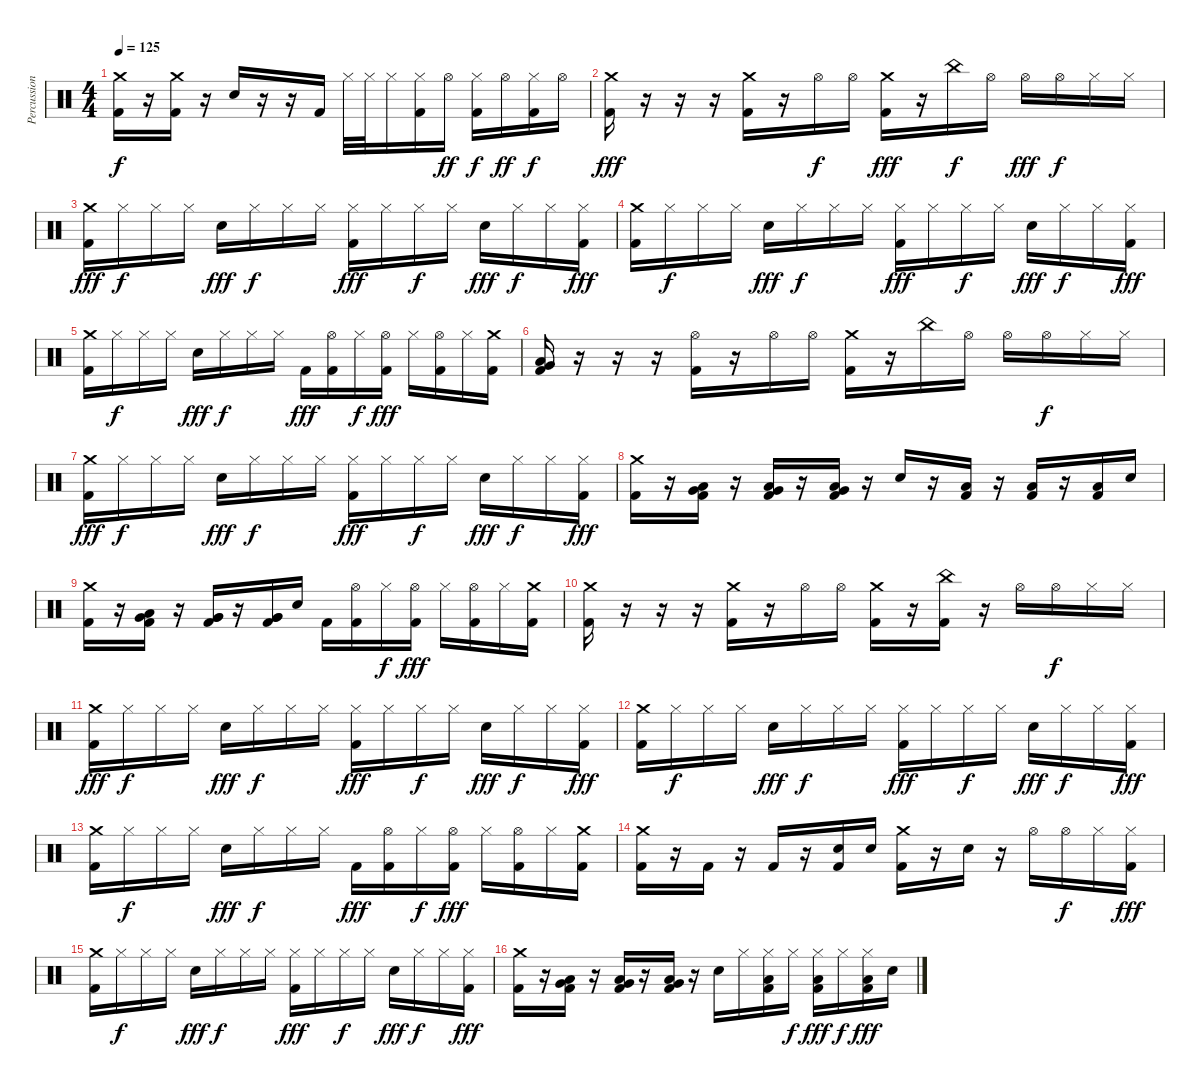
\track ("Percussion" "Percussion") {instrument percussion}
\staff {score}
\articulation defaults
\ts (4 4)
\tempo 125
\clef neutral
\ks c
("Crash medium (hit)" "Kick (hit) 2").16{dy f} r.16 ("Crash medium (hit)" "Kick (hit) 2").16 r.16 "Electric Snare (hit)".16 r.16 r.16 "Kick (hit) 2".16 "Hi-Hat (closed)".32 "Hi-Hat (closed)".32 "Hi-Hat (closed)".16 ("Hi-Hat (closed)" "Kick (hit) 2").16 "Hi-Hat (open)".16{dy ff} ("Hi-Hat (closed)" "Kick (hit) 2").16{dy f} "Hi-Hat (open)".16{dy ff} ("Hi-Hat (closed)" "Kick (hit) 2").16{dy f} "Hi-Hat (open)".16 |
("Crash medium (hit)" "Kick (hit) 2").16{dy fff} r.16 r.16 r.16 ("Crash medium (hit)" "Kick (hit) 2").16 r.16 "Hi-Hat (open)".16{dy f} "Hi-Hat (open)".16 ("Crash medium (hit)" "Kick (hit) 2").16{dy fff} r.16 "China (hit)".16{dy f} "Hi-Hat (open)".16 "Hi-Hat (open)".16{dy fff} "Hi-Hat (open)".16{dy f} "Hi-Hat (closed)".16 "Hi-Hat (closed)".16 |
("Crash medium (hit)" "Kick (hit) 2").16{dy fff} "Hi-Hat (closed)".16{dy f} "Hi-Hat (closed)".16 "Hi-Hat (closed)".16 "Electric Snare (hit)".16{dy fff} "Hi-Hat (closed)".16{dy f} "Hi-Hat (closed)".16 "Hi-Hat (closed)".16 ("Hi-Hat (closed)" "Kick (hit) 2").16{dy fff} "Hi-Hat (closed)".16 "Hi-Hat (closed)".16{dy f} "Hi-Hat (closed)".16 "Electric Snare (hit)".16{dy fff} "Hi-Hat (closed)".16{dy f} "Hi-Hat (closed)".16 ("Hi-Hat (closed)" "Kick (hit) 2").16{dy fff} |
("Crash medium (hit)" "Kick (hit) 2").16 "Hi-Hat (closed)".16{dy f} "Hi-Hat (closed)".16 "Hi-Hat (closed)".16 "Electric Snare (hit)".16{dy fff} "Hi-Hat (closed)".16{dy f} "Hi-Hat (closed)".16 "Hi-Hat (closed)".16 ("Hi-Hat (closed)" "Kick (hit) 2").16{dy fff} "Hi-Hat (closed)".16 "Hi-Hat (closed)".16{dy f} "Hi-Hat (closed)".16 "Electric Snare (hit)".16{dy fff} "Hi-Hat (closed)".16{dy f} "Hi-Hat (closed)".16 ("Hi-Hat (closed)" "Kick (hit) 2").16{dy fff} |
("Crash medium (hit)" "Kick (hit) 2").16 "Hi-Hat (closed)".16{dy f} "Hi-Hat (closed)".16 "Hi-Hat (closed)".16 "Electric Snare (hit)".16{dy fff} "Hi-Hat (closed)".16{dy f} "Hi-Hat (closed)".16 "Hi-Hat (closed)".16 "Kick (hit) 2".16{dy fff} ("Hi-Hat (open)" "Kick (hit) 2").16 "Hi-Hat (closed)".16{dy f} ("Hi-Hat (open)" "Kick (hit) 2").16{dy fff} "Hi-Hat (closed)".16 ("Hi-Hat (open)" "Kick (hit) 2").16 "Hi-Hat (closed)".16 ("Crash medium (hit)" "Kick (hit) 2").16 |
("Very Low Tom (hit)" "Low Floor Tom (hit)" "Kick (hit) 2").16 r.16 r.16 r.16 ("Hi-Hat (open)" "Kick (hit) 2").16 r.16 "Hi-Hat (open)".16 "Hi-Hat (open)".16 ("Crash medium (hit)" "Kick (hit) 2").16 r.16 "China (hit)".16 "Hi-Hat (open)".16 "Hi-Hat (open)".16 "Hi-Hat (open)".16{dy f} "Hi-Hat (closed)".16 "Hi-Hat (closed)".16 |
("Crash medium (hit)" "Kick (hit) 2").16{dy fff} "Hi-Hat (closed)".16{dy f} "Hi-Hat (closed)".16 "Hi-Hat (closed)".16 "Electric Snare (hit)".16{dy fff} "Hi-Hat (closed)".16{dy f} "Hi-Hat (closed)".16 "Hi-Hat (closed)".16 ("Hi-Hat (closed)" "Kick (hit) 2").16{dy fff} "Hi-Hat (closed)".16 "Hi-Hat (closed)".16{dy f} "Hi-Hat (closed)".16 "Electric Snare (hit)".16{dy fff} "Hi-Hat (closed)".16{dy f} "Hi-Hat (closed)".16 ("Hi-Hat (closed)" "Kick (hit) 2").16{dy fff} |
("Crash medium (hit)" "Kick (hit) 2").16 r.16 ("Very Low Tom (hit)" "Low Floor Tom (hit)" "Kick (hit) 2").16 r.16 ("Very Low Tom (hit)" "Low Floor Tom (hit)" "Kick (hit) 2").16 r.16 ("Very Low Tom (hit)" "Low Floor Tom (hit)" "Kick (hit) 2").16 r.16 "Electric Snare (hit)".16 r.16 ("Low Floor Tom (hit)" "Kick (hit) 2").16 r.16 ("Low Floor Tom (hit)" "Kick (hit) 2").16 r.16 ("Low Floor Tom (hit)" "Kick (hit) 2").16 "Electric Snare (hit)".16 |
("Crash medium (hit)" "Kick (hit) 2").16 r.16 ("Very Low Tom (hit)" "Low Floor Tom (hit)" "Kick (hit) 2").16 r.16 ("Very Low Tom (hit)" "Very Low Tom (hit)" "Kick (hit) 2").16 r.16 ("Very Low Tom (hit)" "Very Low Tom (hit)" "Kick (hit) 2").16 "Electric Snare (hit)".16 "Kick (hit) 2".16 ("Hi-Hat (open)" "Kick (hit) 2").16 "Hi-Hat (closed)".16{dy f} ("Hi-Hat (open)" "Kick (hit) 2").16{dy fff} "Hi-Hat (closed)".16 ("Hi-Hat (open)" "Kick (hit) 2").16 "Hi-Hat (closed)".16 ("Crash medium (hit)" "Kick (hit) 2").16 |
("Crash medium (hit)" "Kick (hit) 2").16 r.16 r.16 r.16 ("Crash medium (hit)" "Kick (hit) 2").16 r.16 "Hi-Hat (open)".16 "Hi-Hat (open)".16 ("Crash medium (hit)" "Kick (hit) 2").16 r.16 ("China (hit)" "Kick (hit) 2").16 r.16 "Hi-Hat (open)".16 "Hi-Hat (open)".16{dy f} "Hi-Hat (closed)".16 "Hi-Hat (closed)".16 |
("Crash medium (hit)" "Kick (hit) 2").16{dy fff} "Hi-Hat (closed)".16{dy f} "Hi-Hat (closed)".16 "Hi-Hat (closed)".16 "Electric Snare (hit)".16{dy fff} "Hi-Hat (closed)".16{dy f} "Hi-Hat (closed)".16 "Hi-Hat (closed)".16 ("Hi-Hat (closed)" "Kick (hit) 2").16{dy fff} "Hi-Hat (closed)".16 "Hi-Hat (closed)".16{dy f} "Hi-Hat (closed)".16 "Electric Snare (hit)".16{dy fff} "Hi-Hat (closed)".16{dy f} "Hi-Hat (closed)".16 ("Hi-Hat (closed)" "Kick (hit) 2").16{dy fff} |
("Crash medium (hit)" "Kick (hit) 2").16 "Hi-Hat (closed)".16{dy f} "Hi-Hat (closed)".16 "Hi-Hat (closed)".16 "Electric Snare (hit)".16{dy fff} "Hi-Hat (closed)".16{dy f} "Hi-Hat (closed)".16 "Hi-Hat (closed)".16 ("Hi-Hat (closed)" "Kick (hit) 2").16{dy fff} "Hi-Hat (closed)".16 "Hi-Hat (closed)".16{dy f} "Hi-Hat (closed)".16 "Electric Snare (hit)".16{dy fff} "Hi-Hat (closed)".16{dy f} "Hi-Hat (closed)".16 ("Hi-Hat (closed)" "Kick (hit) 2").16{dy fff} |
("Crash medium (hit)" "Kick (hit) 2").16 "Hi-Hat (closed)".16{dy f} "Hi-Hat (closed)".16 "Hi-Hat (closed)".16 "Electric Snare (hit)".16{dy fff} "Hi-Hat (closed)".16{dy f} "Hi-Hat (closed)".16 "Hi-Hat (closed)".16 "Kick (hit) 2".16{dy fff} ("Hi-Hat (open)" "Kick (hit) 2").16 "Hi-Hat (closed)".16{dy f} ("Hi-Hat (open)" "Kick (hit) 2").16{dy fff} "Hi-Hat (closed)".16 ("Hi-Hat (open)" "Kick (hit) 2").16 "Hi-Hat (closed)".16 ("Crash medium (hit)" "Kick (hit) 2").16 |
("Crash medium (hit)" "Kick (hit) 2").16 r.16 "Kick (hit) 2".16 r.16 "Kick (hit) 2".16 r.16 ("Electric Snare (hit)" "Kick (hit) 2").16 "Electric Snare (hit)".16 ("Crash medium (hit)" "Kick (hit) 2").16 r.16 "Electric Snare (hit)".16 r.16 "Hi-Hat (open)".16 "Hi-Hat (open)".16{dy f} "Hi-Hat (closed)".16 ("Hi-Hat (closed)" "Kick (hit) 2").16{dy fff} |
("Crash medium (hit)" "Kick (hit) 2").16 "Hi-Hat (closed)".16{dy f} "Hi-Hat (closed)".16 "Hi-Hat (closed)".16 "Electric Snare (hit)".16{dy fff} "Hi-Hat (closed)".16{dy f} "Hi-Hat (closed)".16 "Hi-Hat (closed)".16 ("Hi-Hat (closed)" "Kick (hit) 2").16{dy fff} "Hi-Hat (closed)".16 "Hi-Hat (closed)".16{dy f} "Hi-Hat (closed)".16 "Electric Snare (hit)".16{dy fff} "Hi-Hat (closed)".16{dy f} "Hi-Hat (closed)".16 ("Hi-Hat (closed)" "Kick (hit) 2").16{dy fff} |
("Crash medium (hit)" "Kick (hit) 2").16 r.16 ("Very Low Tom (hit)" "Low Floor Tom (hit)" "Kick (hit) 2").16 r.16 ("Very Low Tom (hit)" "Low Floor Tom (hit)" "Kick (hit) 2").16 r.16 ("Very Low Tom (hit)" "Low Floor Tom (hit)" "Kick (hit) 2").16 r.16 "Electric Snare (hit)".16 "Hi-Hat (closed)".16 ("Hi-Hat (closed)" "Low Floor Tom (hit)" "Kick (hit) 2").16 "Hi-Hat (closed)".16{dy f} ("Hi-Hat (closed)" "Low Floor Tom (hit)" "Kick (hit) 2").16{dy fff} "Hi-Hat (closed)".16{dy f} ("Hi-Hat (closed)" "Low Floor Tom (hit)" "Kick (hit) 2").16{dy fff} "Electric Snare (hit)".16
